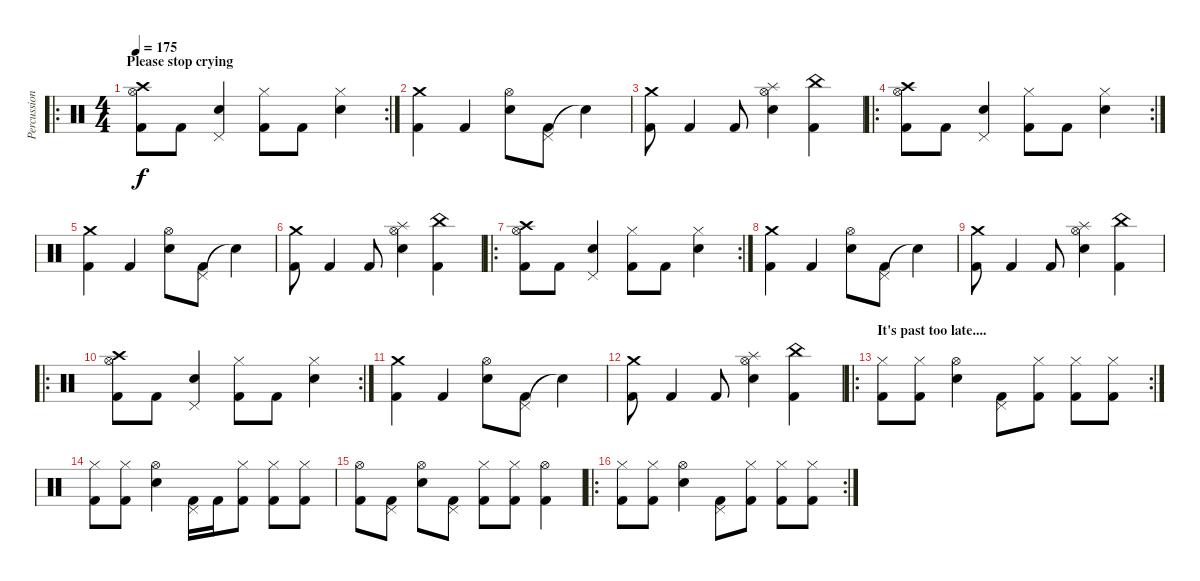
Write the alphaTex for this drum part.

\track ("Percussion" "Percussion") {instrument percussion}
\staff {score}
\articulation defaults
\ro
\rc 2
\ts (4 4)
\section ("" "Please stop crying")
\tempo 175
\clef neutral
\ks c
("Crash high (hit)" "Hi-Hat (open)" "Kick (hit) 2").8{dy f} "Kick (hit) 2".8 ("Pedal Hi-Hat (hit)" "Snare (hit) 2").4 ("Hi-Hat (closed)" "Kick (hit) 2").8 "Kick (hit) 2".8 ("Hi-Hat (closed)" "Snare (hit) 2").4 |
("Crash medium (hit)" "Kick (hit) 2").4 "Kick (hit) 2".4 ("Hi-Hat (open)" "Snare (hit) 2").8 ("Pedal Hi-Hat (hit)" "Kick (hit) 2").8 "Snare (hit)"{t}.4 |
("Crash medium (hit)" "Kick (hit) 2").8 "Kick (hit) 2".4 "Kick (hit) 2".8 ("Splash (hit)" "Hi-Hat (open)" "Snare (hit) 2").4 ("China (hit)" "Kick (hit) 2").4 |
\ro
\rc 2
("Crash high (hit)" "Hi-Hat (open)" "Kick (hit) 2").8 "Kick (hit) 2".8 ("Pedal Hi-Hat (hit)" "Snare (hit) 2").4 ("Hi-Hat (closed)" "Kick (hit) 2").8 "Kick (hit) 2".8 ("Hi-Hat (closed)" "Snare (hit) 2").4 |
("Crash medium (hit)" "Kick (hit) 2").4 "Kick (hit) 2".4 ("Hi-Hat (open)" "Snare (hit) 2").8 ("Pedal Hi-Hat (hit)" "Kick (hit) 2").8 "Snare (hit)"{t}.4 |
("Crash medium (hit)" "Kick (hit) 2").8 "Kick (hit) 2".4 "Kick (hit) 2".8 ("Splash (hit)" "Hi-Hat (open)" "Snare (hit) 2").4 ("China (hit)" "Kick (hit) 2").4 |
\ro
\rc 2
("Crash high (hit)" "Hi-Hat (open)" "Kick (hit) 2").8 "Kick (hit) 2".8 ("Pedal Hi-Hat (hit)" "Snare (hit) 2").4 ("Hi-Hat (closed)" "Kick (hit) 2").8 "Kick (hit) 2".8 ("Hi-Hat (closed)" "Snare (hit) 2").4 |
("Crash medium (hit)" "Kick (hit) 2").4 "Kick (hit) 2".4 ("Hi-Hat (open)" "Snare (hit) 2").8 ("Pedal Hi-Hat (hit)" "Kick (hit) 2").8 "Snare (hit)"{t}.4 |
("Crash medium (hit)" "Kick (hit) 2").8 "Kick (hit) 2".4 "Kick (hit) 2".8 ("Splash (hit)" "Hi-Hat (open)" "Snare (hit) 2").4 ("China (hit)" "Kick (hit) 2").4 |
\ro
\rc 2
("Crash high (hit)" "Hi-Hat (open)" "Kick (hit) 2").8 "Kick (hit) 2".8 ("Pedal Hi-Hat (hit)" "Snare (hit) 2").4 ("Hi-Hat (closed)" "Kick (hit) 2").8 "Kick (hit) 2".8 ("Hi-Hat (closed)" "Snare (hit) 2").4 |
("Crash medium (hit)" "Kick (hit) 2").4 "Kick (hit) 2".4 ("Hi-Hat (open)" "Snare (hit) 2").8 ("Pedal Hi-Hat (hit)" "Kick (hit) 2").8 "Snare (hit)"{t}.4 |
("Crash medium (hit)" "Kick (hit) 2").8 "Kick (hit) 2".4 "Kick (hit) 2".8 ("Splash (hit)" "Hi-Hat (open)" "Snare (hit) 2").4 ("China (hit)" "Kick (hit) 2").4 |
\ro
\rc 2
\section ("" "It's past too late....")
("Hi-Hat (closed)" "Kick (hit) 2").8 ("Hi-Hat (closed)" "Kick (hit) 2").8 ("Hi-Hat (open)" "Snare (hit) 2").4 ("Pedal Hi-Hat (hit)" "Kick (hit) 2").8 ("Hi-Hat (closed)" "Kick (hit) 2").8 ("Hi-Hat (closed)" "Kick (hit) 2").8 ("Hi-Hat (closed)" "Kick (hit) 2").8 |
("Hi-Hat (closed)" "Kick (hit) 2").8 ("Hi-Hat (closed)" "Kick (hit) 2").8 ("Hi-Hat (open)" "Snare (hit) 2").4 ("Pedal Hi-Hat (hit)" "Kick (hit) 2").16 "Kick (hit) 2".16 ("Hi-Hat (closed)" "Kick (hit) 2").8 ("Hi-Hat (closed)" "Kick (hit) 2").8 ("Hi-Hat (closed)" "Kick (hit) 2").8 |
("Hi-Hat (open)" "Kick (hit) 2").8 ("Pedal Hi-Hat (hit)" "Kick (hit) 2").8 ("Hi-Hat (open)" "Snare (hit) 2").8 ("Pedal Hi-Hat (hit)" "Kick (hit) 2").8 ("Hi-Hat (closed)" "Kick (hit) 2").8 ("Hi-Hat (closed)" "Kick (hit) 2").8 ("Hi-Hat (open)" "Kick (hit) 2").4 |
\ro
\rc 2
("Hi-Hat (closed)" "Kick (hit) 2").8 ("Hi-Hat (closed)" "Kick (hit) 2").8 ("Hi-Hat (open)" "Snare (hit) 2").4 ("Pedal Hi-Hat (hit)" "Kick (hit) 2").8 ("Hi-Hat (closed)" "Kick (hit) 2").8 ("Hi-Hat (closed)" "Kick (hit) 2").8 ("Hi-Hat (closed)" "Kick (hit) 2").8
